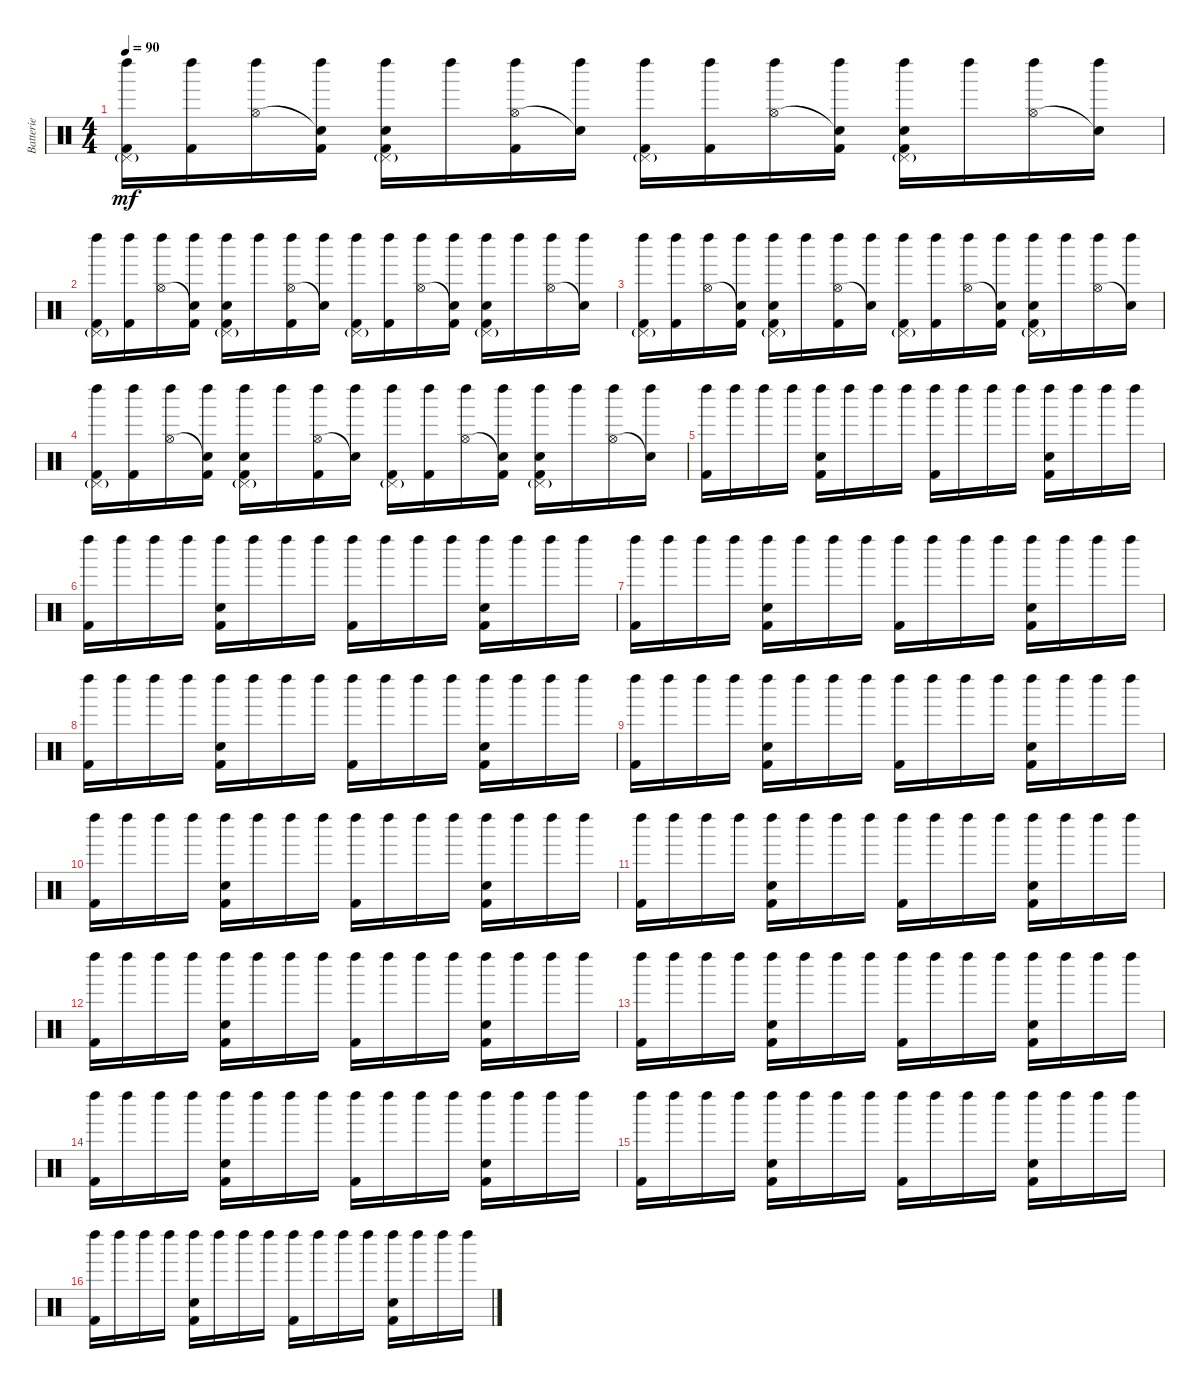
\track ("Batterie" "Batterie") {instrument percussion}
\staff {score}
\articulation defaults
\ts (4 4)
\tempo 90
\clef neutral
\ks c
("Pedal Hi-Hat (hit)"{g} "Left Maraca (hit)" "Kick (hit) 2").16{dy mf} ("Left Maraca (hit)" "Kick (hit) 2").16 ("Hi-Hat (open)" "Left Maraca (hit)").16 ("Snare (hit)"{t} "Left Maraca (hit)" "Kick (hit) 2").16 ("Pedal Hi-Hat (hit)"{g} "Left Maraca (hit)" "Snare (hit) 2" "Kick (hit) 2").16 "Left Maraca (hit)".16 ("Hi-Hat (open)" "Left Maraca (hit)" "Kick (hit) 2").16 ("Snare (hit)"{t} "Left Maraca (hit)").16 ("Pedal Hi-Hat (hit)"{g} "Left Maraca (hit)" "Kick (hit) 2").16 ("Left Maraca (hit)" "Kick (hit) 2").16 ("Hi-Hat (open)" "Left Maraca (hit)").16 ("Snare (hit)"{t} "Left Maraca (hit)" "Kick (hit) 2").16 ("Pedal Hi-Hat (hit)"{g} "Left Maraca (hit)" "Snare (hit) 2" "Kick (hit) 2").16 "Left Maraca (hit)".16 ("Hi-Hat (open)" "Left Maraca (hit)").16 ("Snare (hit)"{t} "Left Maraca (hit)").16 |
("Pedal Hi-Hat (hit)"{g} "Left Maraca (hit)" "Kick (hit) 2").16 ("Left Maraca (hit)" "Kick (hit) 2").16 ("Hi-Hat (open)" "Left Maraca (hit)").16 ("Snare (hit)"{t} "Left Maraca (hit)" "Kick (hit) 2").16 ("Pedal Hi-Hat (hit)"{g} "Left Maraca (hit)" "Snare (hit) 2" "Kick (hit) 2").16 "Left Maraca (hit)".16 ("Hi-Hat (open)" "Left Maraca (hit)" "Kick (hit) 2").16 ("Snare (hit)"{t} "Left Maraca (hit)").16 ("Pedal Hi-Hat (hit)"{g} "Left Maraca (hit)" "Kick (hit) 2").16 ("Left Maraca (hit)" "Kick (hit) 2").16 ("Hi-Hat (open)" "Left Maraca (hit)").16 ("Snare (hit)"{t} "Left Maraca (hit)" "Kick (hit) 2").16 ("Pedal Hi-Hat (hit)"{g} "Left Maraca (hit)" "Snare (hit) 2" "Kick (hit) 2").16 "Left Maraca (hit)".16 ("Hi-Hat (open)" "Left Maraca (hit)").16 ("Snare (hit)"{t} "Left Maraca (hit)").16 |
("Pedal Hi-Hat (hit)"{g} "Left Maraca (hit)" "Kick (hit) 2").16 ("Left Maraca (hit)" "Kick (hit) 2").16 ("Hi-Hat (open)" "Left Maraca (hit)").16 ("Snare (hit)"{t} "Left Maraca (hit)" "Kick (hit) 2").16 ("Pedal Hi-Hat (hit)"{g} "Left Maraca (hit)" "Snare (hit) 2" "Kick (hit) 2").16 "Left Maraca (hit)".16 ("Hi-Hat (open)" "Left Maraca (hit)" "Kick (hit) 2").16 ("Snare (hit)"{t} "Left Maraca (hit)").16 ("Pedal Hi-Hat (hit)"{g} "Left Maraca (hit)" "Kick (hit) 2").16 ("Left Maraca (hit)" "Kick (hit) 2").16 ("Hi-Hat (open)" "Left Maraca (hit)").16 ("Snare (hit)"{t} "Left Maraca (hit)" "Kick (hit) 2").16 ("Pedal Hi-Hat (hit)"{g} "Left Maraca (hit)" "Snare (hit) 2" "Kick (hit) 2").16 "Left Maraca (hit)".16 ("Hi-Hat (open)" "Left Maraca (hit)").16 ("Snare (hit)"{t} "Left Maraca (hit)").16 |
("Pedal Hi-Hat (hit)"{g} "Left Maraca (hit)" "Kick (hit) 2").16 ("Left Maraca (hit)" "Kick (hit) 2").16 ("Hi-Hat (open)" "Left Maraca (hit)").16 ("Snare (hit)"{t} "Left Maraca (hit)" "Kick (hit) 2").16 ("Pedal Hi-Hat (hit)"{g} "Left Maraca (hit)" "Snare (hit) 2" "Kick (hit) 2").16 "Left Maraca (hit)".16 ("Hi-Hat (open)" "Left Maraca (hit)" "Kick (hit) 2").16 ("Snare (hit)"{t} "Left Maraca (hit)").16 ("Pedal Hi-Hat (hit)"{g} "Left Maraca (hit)" "Kick (hit) 2").16 ("Left Maraca (hit)" "Kick (hit) 2").16 ("Hi-Hat (open)" "Left Maraca (hit)").16 ("Snare (hit)"{t} "Left Maraca (hit)" "Kick (hit) 2").16 ("Pedal Hi-Hat (hit)"{g} "Left Maraca (hit)" "Snare (hit) 2" "Kick (hit) 2").16 "Left Maraca (hit)".16 ("Hi-Hat (open)" "Left Maraca (hit)").16 ("Snare (hit)"{t} "Left Maraca (hit)").16 |
("Left Maraca (hit)" "Kick (hit) 2").16 "Left Maraca (hit)".16 "Left Maraca (hit)".16 "Left Maraca (hit)".16 ("Left Maraca (hit)" "Snare (hit) 2" "Kick (hit) 2").16 "Left Maraca (hit)".16 "Left Maraca (hit)".16 "Left Maraca (hit)".16 ("Left Maraca (hit)" "Kick (hit) 2").16 "Left Maraca (hit)".16 "Left Maraca (hit)".16 "Left Maraca (hit)".16 ("Left Maraca (hit)" "Snare (hit) 2" "Kick (hit) 2").16 "Left Maraca (hit)".16 "Left Maraca (hit)".16 "Left Maraca (hit)".16 |
("Left Maraca (hit)" "Kick (hit) 2").16 "Left Maraca (hit)".16 "Left Maraca (hit)".16 "Left Maraca (hit)".16 ("Left Maraca (hit)" "Snare (hit) 2" "Kick (hit) 2").16 "Left Maraca (hit)".16 "Left Maraca (hit)".16 "Left Maraca (hit)".16 ("Left Maraca (hit)" "Kick (hit) 2").16 "Left Maraca (hit)".16 "Left Maraca (hit)".16 "Left Maraca (hit)".16 ("Left Maraca (hit)" "Snare (hit) 2" "Kick (hit) 2").16 "Left Maraca (hit)".16 "Left Maraca (hit)".16 "Left Maraca (hit)".16 |
("Left Maraca (hit)" "Kick (hit) 2").16 "Left Maraca (hit)".16 "Left Maraca (hit)".16 "Left Maraca (hit)".16 ("Left Maraca (hit)" "Snare (hit) 2" "Kick (hit) 2").16 "Left Maraca (hit)".16 "Left Maraca (hit)".16 "Left Maraca (hit)".16 ("Left Maraca (hit)" "Kick (hit) 2").16 "Left Maraca (hit)".16 "Left Maraca (hit)".16 "Left Maraca (hit)".16 ("Left Maraca (hit)" "Snare (hit) 2" "Kick (hit) 2").16 "Left Maraca (hit)".16 "Left Maraca (hit)".16 "Left Maraca (hit)".16 |
("Left Maraca (hit)" "Kick (hit) 2").16 "Left Maraca (hit)".16 "Left Maraca (hit)".16 "Left Maraca (hit)".16 ("Left Maraca (hit)" "Snare (hit) 2" "Kick (hit) 2").16 "Left Maraca (hit)".16 "Left Maraca (hit)".16 "Left Maraca (hit)".16 ("Left Maraca (hit)" "Kick (hit) 2").16 "Left Maraca (hit)".16 "Left Maraca (hit)".16 "Left Maraca (hit)".16 ("Left Maraca (hit)" "Snare (hit) 2" "Kick (hit) 2").16 "Left Maraca (hit)".16 "Left Maraca (hit)".16 "Left Maraca (hit)".16 |
("Left Maraca (hit)" "Kick (hit) 2").16 "Left Maraca (hit)".16 "Left Maraca (hit)".16 "Left Maraca (hit)".16 ("Left Maraca (hit)" "Snare (hit) 2" "Kick (hit) 2").16 "Left Maraca (hit)".16 "Left Maraca (hit)".16 "Left Maraca (hit)".16 ("Left Maraca (hit)" "Kick (hit) 2").16 "Left Maraca (hit)".16 "Left Maraca (hit)".16 "Left Maraca (hit)".16 ("Left Maraca (hit)" "Snare (hit) 2" "Kick (hit) 2").16 "Left Maraca (hit)".16 "Left Maraca (hit)".16 "Left Maraca (hit)".16 |
("Left Maraca (hit)" "Kick (hit) 2").16 "Left Maraca (hit)".16 "Left Maraca (hit)".16 "Left Maraca (hit)".16 ("Left Maraca (hit)" "Snare (hit) 2" "Kick (hit) 2").16 "Left Maraca (hit)".16 "Left Maraca (hit)".16 "Left Maraca (hit)".16 ("Left Maraca (hit)" "Kick (hit) 2").16 "Left Maraca (hit)".16 "Left Maraca (hit)".16 "Left Maraca (hit)".16 ("Left Maraca (hit)" "Snare (hit) 2" "Kick (hit) 2").16 "Left Maraca (hit)".16 "Left Maraca (hit)".16 "Left Maraca (hit)".16 |
("Left Maraca (hit)" "Kick (hit) 2").16 "Left Maraca (hit)".16 "Left Maraca (hit)".16 "Left Maraca (hit)".16 ("Left Maraca (hit)" "Snare (hit) 2" "Kick (hit) 2").16 "Left Maraca (hit)".16 "Left Maraca (hit)".16 "Left Maraca (hit)".16 ("Left Maraca (hit)" "Kick (hit) 2").16 "Left Maraca (hit)".16 "Left Maraca (hit)".16 "Left Maraca (hit)".16 ("Left Maraca (hit)" "Snare (hit) 2" "Kick (hit) 2").16 "Left Maraca (hit)".16 "Left Maraca (hit)".16 "Left Maraca (hit)".16 |
("Left Maraca (hit)" "Kick (hit) 2").16 "Left Maraca (hit)".16 "Left Maraca (hit)".16 "Left Maraca (hit)".16 ("Left Maraca (hit)" "Snare (hit) 2" "Kick (hit) 2").16 "Left Maraca (hit)".16 "Left Maraca (hit)".16 "Left Maraca (hit)".16 ("Left Maraca (hit)" "Kick (hit) 2").16 "Left Maraca (hit)".16 "Left Maraca (hit)".16 "Left Maraca (hit)".16 ("Left Maraca (hit)" "Snare (hit) 2" "Kick (hit) 2").16 "Left Maraca (hit)".16 "Left Maraca (hit)".16 "Left Maraca (hit)".16 |
("Left Maraca (hit)" "Kick (hit) 2").16 "Left Maraca (hit)".16 "Left Maraca (hit)".16 "Left Maraca (hit)".16 ("Left Maraca (hit)" "Snare (hit) 2" "Kick (hit) 2").16 "Left Maraca (hit)".16 "Left Maraca (hit)".16 "Left Maraca (hit)".16 ("Left Maraca (hit)" "Kick (hit) 2").16 "Left Maraca (hit)".16 "Left Maraca (hit)".16 "Left Maraca (hit)".16 ("Left Maraca (hit)" "Snare (hit) 2" "Kick (hit) 2").16 "Left Maraca (hit)".16 "Left Maraca (hit)".16 "Left Maraca (hit)".16 |
("Left Maraca (hit)" "Kick (hit) 2").16 "Left Maraca (hit)".16 "Left Maraca (hit)".16 "Left Maraca (hit)".16 ("Left Maraca (hit)" "Snare (hit) 2" "Kick (hit) 2").16 "Left Maraca (hit)".16 "Left Maraca (hit)".16 "Left Maraca (hit)".16 ("Left Maraca (hit)" "Kick (hit) 2").16 "Left Maraca (hit)".16 "Left Maraca (hit)".16 "Left Maraca (hit)".16 ("Left Maraca (hit)" "Snare (hit) 2" "Kick (hit) 2").16 "Left Maraca (hit)".16 "Left Maraca (hit)".16 "Left Maraca (hit)".16 |
("Left Maraca (hit)" "Kick (hit) 2").16 "Left Maraca (hit)".16 "Left Maraca (hit)".16 "Left Maraca (hit)".16 ("Left Maraca (hit)" "Snare (hit) 2" "Kick (hit) 2").16 "Left Maraca (hit)".16 "Left Maraca (hit)".16 "Left Maraca (hit)".16 ("Left Maraca (hit)" "Kick (hit) 2").16 "Left Maraca (hit)".16 "Left Maraca (hit)".16 "Left Maraca (hit)".16 ("Left Maraca (hit)" "Snare (hit) 2" "Kick (hit) 2").16 "Left Maraca (hit)".16 "Left Maraca (hit)".16 "Left Maraca (hit)".16 |
("Left Maraca (hit)" "Kick (hit) 2").16 "Left Maraca (hit)".16 "Left Maraca (hit)".16 "Left Maraca (hit)".16 ("Left Maraca (hit)" "Snare (hit) 2" "Kick (hit) 2").16 "Left Maraca (hit)".16 "Left Maraca (hit)".16 "Left Maraca (hit)".16 ("Left Maraca (hit)" "Kick (hit) 2").16 "Left Maraca (hit)".16 "Left Maraca (hit)".16 "Left Maraca (hit)".16 ("Left Maraca (hit)" "Snare (hit) 2" "Kick (hit) 2").16 "Left Maraca (hit)".16 "Left Maraca (hit)".16 "Left Maraca (hit)".16
